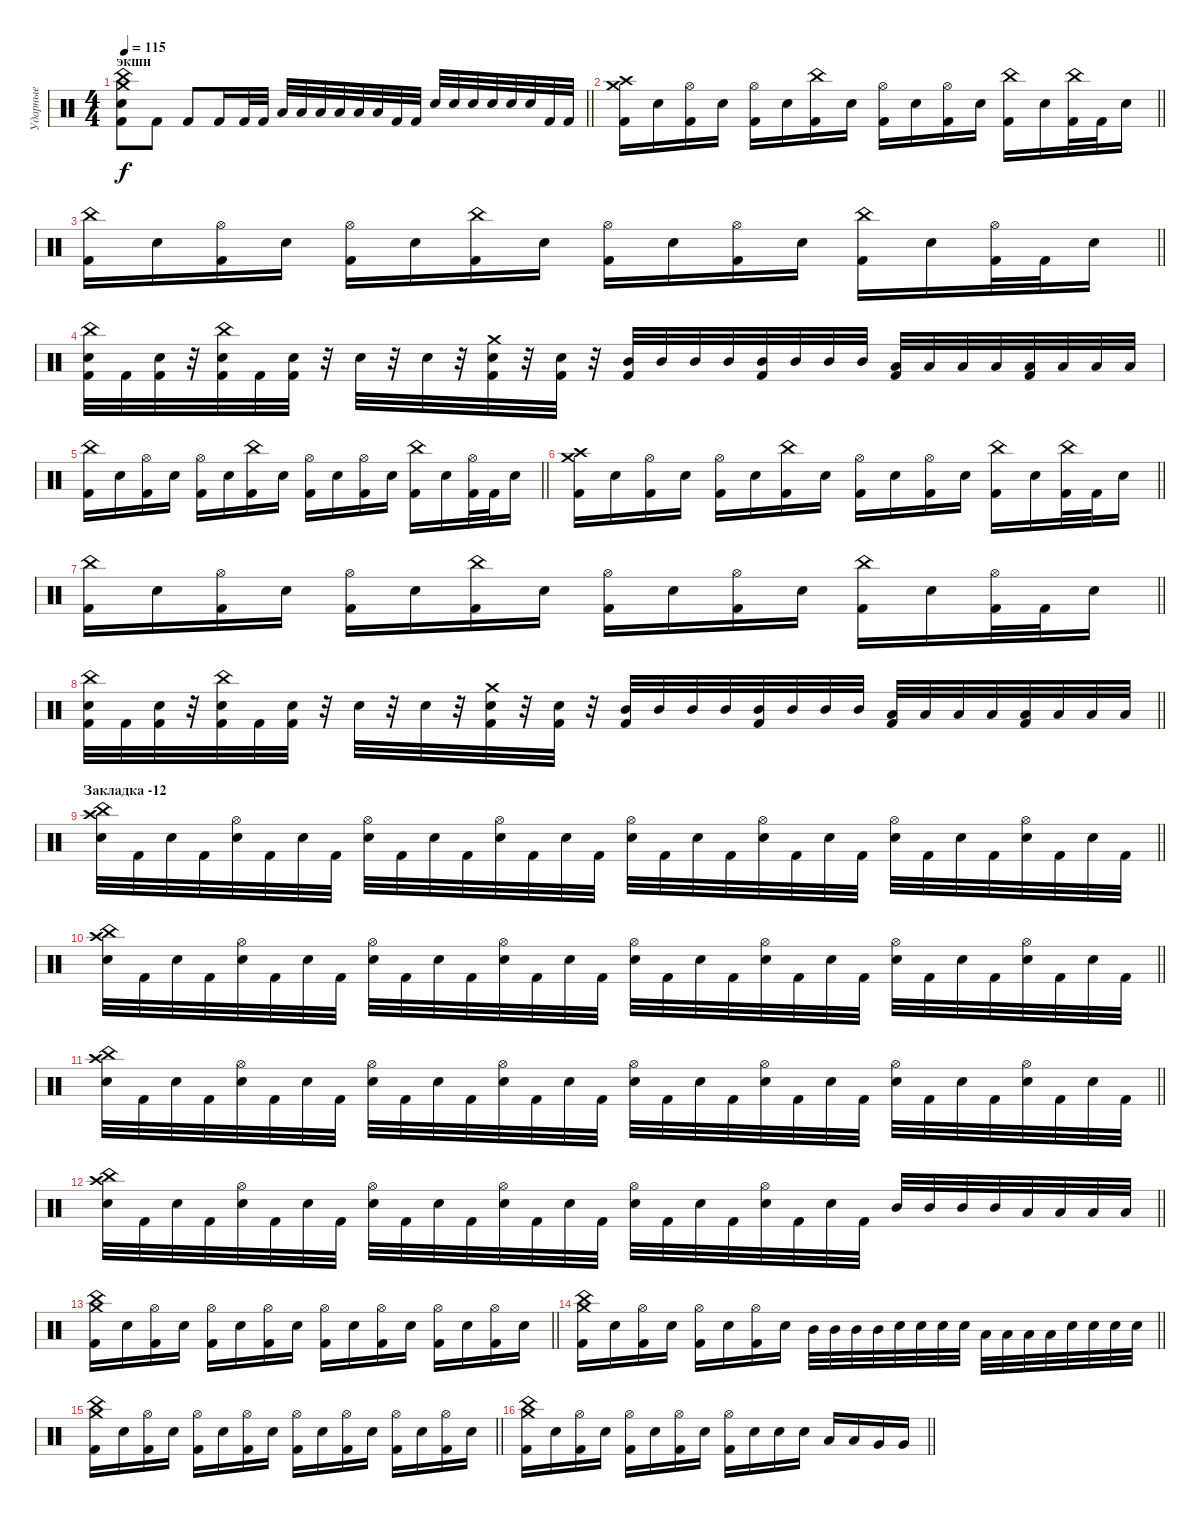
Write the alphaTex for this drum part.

\track ("Ударные" "Ударные") {instrument percussion}
\staff {score}
\articulation defaults
\ts (4 4)
\section ("" "экшн")
\tempo 115
\clef neutral
\barLineRight lightlight
\ks c
("China (hit)" "Crash medium (hit)" "Electric Snare (hit)" "Kick (hit) 2").8{dy f} "Kick (hit) 2".8 "Kick (hit) 2".8 "Kick (hit) 2".16 "Kick (hit) 2".32 "Kick (hit) 2".32 "Low Tom (hit)".32 "Low Tom (hit)".32 "Low Tom (hit)".32 "Low Tom (hit)".32 "Low Tom (hit)".32 "Low Tom (hit)".32 "Kick (hit) 2".32 "Kick (hit) 2".32 "Electric Snare (hit)".32 "Electric Snare (hit)".32 "Electric Snare (hit)".32 "Electric Snare (hit)".32 "Electric Snare (hit)".32 "Electric Snare (hit)".32 "Kick (hit) 2".32 "Kick (hit) 2".32 |
\barLineRight lightlight
("Crash medium (hit)" "Crash high (hit)" "Kick (hit) 2").16 "Electric Snare (hit)".16 ("Hi-Hat (open)" "Kick (hit) 2").16 "Electric Snare (hit)".16 ("Hi-Hat (open)" "Kick (hit) 2").16 "Electric Snare (hit)".16 ("China (hit)" "Kick (hit) 2").16 "Electric Snare (hit)".16 ("Hi-Hat (open)" "Kick (hit) 2").16 "Electric Snare (hit)".16 ("Hi-Hat (open)" "Kick (hit) 2").16 "Electric Snare (hit)".16 ("China (hit)" "Kick (hit) 2").16 "Electric Snare (hit)".16 ("China (hit)" "Kick (hit) 2").32 "Kick (hit) 2".32 "Electric Snare (hit)".16 |
\barLineRight lightlight
("China (hit)" "Kick (hit) 2").16 "Electric Snare (hit)".16 ("Hi-Hat (open)" "Kick (hit) 2").16 "Electric Snare (hit)".16 ("Hi-Hat (open)" "Kick (hit) 2").16 "Electric Snare (hit)".16 ("China (hit)" "Kick (hit) 2").16 "Electric Snare (hit)".16 ("Hi-Hat (open)" "Kick (hit) 2").16 "Electric Snare (hit)".16 ("Hi-Hat (open)" "Kick (hit) 2").16 "Electric Snare (hit)".16 ("China (hit)" "Kick (hit) 2").16 "Electric Snare (hit)".16 ("Hi-Hat (open)" "Kick (hit) 2").32 "Kick (hit) 2".32 "Electric Snare (hit)".16 |
("China (hit)" "Electric Snare (hit)" "Kick (hit) 2").32 "Kick (hit) 2".32 ("Electric Snare (hit)" "Kick (hit) 2").32 r.32 ("China (hit)" "Electric Snare (hit)" "Kick (hit) 2").32 "Kick (hit) 2".32 ("Electric Snare (hit)" "Kick (hit) 2").32 r.32 "Electric Snare (hit)".32 r.32 "Electric Snare (hit)".32 r.32 ("Crash medium (hit)" "Electric Snare (hit)" "Kick (hit) 2").32 r.32 ("Electric Snare (hit)" "Kick (hit) 2").32 r.32 ("Mid Tom (hit)" "Kick (hit) 2").32 "Mid Tom (hit)".32 "Mid Tom (hit)".32 "Mid Tom (hit)".32 ("Mid Tom (hit)" "Kick (hit) 2").32 "Mid Tom (hit)".32 "Mid Tom (hit)".32 "Mid Tom (hit)".32 ("Low Tom (hit)" "Kick (hit) 2").32 "Low Tom (hit)".32 "Low Tom (hit)".32 "Low Tom (hit)".32 ("Low Tom (hit)" "Kick (hit) 2").32 "Low Tom (hit)".32 "Low Tom (hit)".32 "Low Tom (hit)".32 |
\barLineRight lightlight
("China (hit)" "Kick (hit) 2").16 "Electric Snare (hit)".16 ("Hi-Hat (open)" "Kick (hit) 2").16 "Electric Snare (hit)".16 ("Hi-Hat (open)" "Kick (hit) 2").16 "Electric Snare (hit)".16 ("China (hit)" "Kick (hit) 2").16 "Electric Snare (hit)".16 ("Hi-Hat (open)" "Kick (hit) 2").16 "Electric Snare (hit)".16 ("Hi-Hat (open)" "Kick (hit) 2").16 "Electric Snare (hit)".16 ("China (hit)" "Kick (hit) 2").16 "Electric Snare (hit)".16 ("Hi-Hat (open)" "Kick (hit) 2").32 "Kick (hit) 2".32 "Electric Snare (hit)".16 |
\barLineRight lightlight
("Crash medium (hit)" "Crash high (hit)" "Kick (hit) 2").16 "Electric Snare (hit)".16 ("Hi-Hat (open)" "Kick (hit) 2").16 "Electric Snare (hit)".16 ("Hi-Hat (open)" "Kick (hit) 2").16 "Electric Snare (hit)".16 ("China (hit)" "Kick (hit) 2").16 "Electric Snare (hit)".16 ("Hi-Hat (open)" "Kick (hit) 2").16 "Electric Snare (hit)".16 ("Hi-Hat (open)" "Kick (hit) 2").16 "Electric Snare (hit)".16 ("China (hit)" "Kick (hit) 2").16 "Electric Snare (hit)".16 ("China (hit)" "Kick (hit) 2").32 "Kick (hit) 2".32 "Electric Snare (hit)".16 |
\barLineRight lightlight
("China (hit)" "Kick (hit) 2").16 "Electric Snare (hit)".16 ("Hi-Hat (open)" "Kick (hit) 2").16 "Electric Snare (hit)".16 ("Hi-Hat (open)" "Kick (hit) 2").16 "Electric Snare (hit)".16 ("China (hit)" "Kick (hit) 2").16 "Electric Snare (hit)".16 ("Hi-Hat (open)" "Kick (hit) 2").16 "Electric Snare (hit)".16 ("Hi-Hat (open)" "Kick (hit) 2").16 "Electric Snare (hit)".16 ("China (hit)" "Kick (hit) 2").16 "Electric Snare (hit)".16 ("Hi-Hat (open)" "Kick (hit) 2").32 "Kick (hit) 2".32 "Electric Snare (hit)".16 |
\barLineRight lightlight
("China (hit)" "Electric Snare (hit)" "Kick (hit) 2").32 "Kick (hit) 2".32 ("Electric Snare (hit)" "Kick (hit) 2").32 r.32 ("China (hit)" "Electric Snare (hit)" "Kick (hit) 2").32 "Kick (hit) 2".32 ("Electric Snare (hit)" "Kick (hit) 2").32 r.32 "Electric Snare (hit)".32 r.32 "Electric Snare (hit)".32 r.32 ("Crash medium (hit)" "Electric Snare (hit)" "Kick (hit) 2").32 r.32 ("Electric Snare (hit)" "Kick (hit) 2").32 r.32 ("Mid Tom (hit)" "Kick (hit) 2").32 "Mid Tom (hit)".32 "Mid Tom (hit)".32 "Mid Tom (hit)".32 ("Mid Tom (hit)" "Kick (hit) 2").32 "Mid Tom (hit)".32 "Mid Tom (hit)".32 "Mid Tom (hit)".32 ("Low Tom (hit)" "Kick (hit) 2").32 "Low Tom (hit)".32 "Low Tom (hit)".32 "Low Tom (hit)".32 ("Low Tom (hit)" "Kick (hit) 2").32 "Low Tom (hit)".32 "Low Tom (hit)".32 "Low Tom (hit)".32 |
\section ("" "Закладка -12")
\barLineRight lightlight
("China (hit)" "Crash high (hit)" "Electric Snare (hit)").32 "Kick (hit) 2".32 "Electric Snare (hit)".32 "Kick (hit) 2".32 ("Hi-Hat (open)" "Electric Snare (hit)").32 "Kick (hit) 2".32 "Electric Snare (hit)".32 "Kick (hit) 2".32 ("Hi-Hat (open)" "Electric Snare (hit)").32 "Kick (hit) 2".32 "Electric Snare (hit)".32 "Kick (hit) 2".32 ("Hi-Hat (open)" "Electric Snare (hit)").32 "Kick (hit) 2".32 "Electric Snare (hit)".32 "Kick (hit) 2".32 ("Hi-Hat (open)" "Electric Snare (hit)").32 "Kick (hit) 2".32 "Electric Snare (hit)".32 "Kick (hit) 2".32 ("Hi-Hat (open)" "Electric Snare (hit)").32 "Kick (hit) 2".32 "Electric Snare (hit)".32 "Kick (hit) 2".32 ("Hi-Hat (open)" "Electric Snare (hit)").32 "Kick (hit) 2".32 "Electric Snare (hit)".32 "Kick (hit) 2".32 ("Hi-Hat (open)" "Electric Snare (hit)").32 "Kick (hit) 2".32 "Electric Snare (hit)".32 "Kick (hit) 2".32 |
\barLineRight lightlight
("China (hit)" "Crash high (hit)" "Electric Snare (hit)").32 "Kick (hit) 2".32 "Electric Snare (hit)".32 "Kick (hit) 2".32 ("Hi-Hat (open)" "Electric Snare (hit)").32 "Kick (hit) 2".32 "Electric Snare (hit)".32 "Kick (hit) 2".32 ("Hi-Hat (open)" "Electric Snare (hit)").32 "Kick (hit) 2".32 "Electric Snare (hit)".32 "Kick (hit) 2".32 ("Hi-Hat (open)" "Electric Snare (hit)").32 "Kick (hit) 2".32 "Electric Snare (hit)".32 "Kick (hit) 2".32 ("Hi-Hat (open)" "Electric Snare (hit)").32 "Kick (hit) 2".32 "Electric Snare (hit)".32 "Kick (hit) 2".32 ("Hi-Hat (open)" "Electric Snare (hit)").32 "Kick (hit) 2".32 "Electric Snare (hit)".32 "Kick (hit) 2".32 ("Hi-Hat (open)" "Electric Snare (hit)").32 "Kick (hit) 2".32 "Electric Snare (hit)".32 "Kick (hit) 2".32 ("Hi-Hat (open)" "Electric Snare (hit)").32 "Kick (hit) 2".32 "Electric Snare (hit)".32 "Kick (hit) 2".32 |
\barLineRight lightlight
("China (hit)" "Crash high (hit)" "Electric Snare (hit)").32 "Kick (hit) 2".32 "Electric Snare (hit)".32 "Kick (hit) 2".32 ("Hi-Hat (open)" "Electric Snare (hit)").32 "Kick (hit) 2".32 "Electric Snare (hit)".32 "Kick (hit) 2".32 ("Hi-Hat (open)" "Electric Snare (hit)").32 "Kick (hit) 2".32 "Electric Snare (hit)".32 "Kick (hit) 2".32 ("Hi-Hat (open)" "Electric Snare (hit)").32 "Kick (hit) 2".32 "Electric Snare (hit)".32 "Kick (hit) 2".32 ("Hi-Hat (open)" "Electric Snare (hit)").32 "Kick (hit) 2".32 "Electric Snare (hit)".32 "Kick (hit) 2".32 ("Hi-Hat (open)" "Electric Snare (hit)").32 "Kick (hit) 2".32 "Electric Snare (hit)".32 "Kick (hit) 2".32 ("Hi-Hat (open)" "Electric Snare (hit)").32 "Kick (hit) 2".32 "Electric Snare (hit)".32 "Kick (hit) 2".32 ("Hi-Hat (open)" "Electric Snare (hit)").32 "Kick (hit) 2".32 "Electric Snare (hit)".32 "Kick (hit) 2".32 |
\barLineRight lightlight
("China (hit)" "Crash high (hit)" "Electric Snare (hit)").32 "Kick (hit) 2".32 "Electric Snare (hit)".32 "Kick (hit) 2".32 ("Hi-Hat (open)" "Electric Snare (hit)").32 "Kick (hit) 2".32 "Electric Snare (hit)".32 "Kick (hit) 2".32 ("Hi-Hat (open)" "Electric Snare (hit)").32 "Kick (hit) 2".32 "Electric Snare (hit)".32 "Kick (hit) 2".32 ("Hi-Hat (open)" "Electric Snare (hit)").32 "Kick (hit) 2".32 "Electric Snare (hit)".32 "Kick (hit) 2".32 ("Hi-Hat (open)" "Electric Snare (hit)").32 "Kick (hit) 2".32 "Electric Snare (hit)".32 "Kick (hit) 2".32 ("Hi-Hat (open)" "Electric Snare (hit)").32 "Kick (hit) 2".32 "Electric Snare (hit)".32 "Kick (hit) 2".32 "Mid Tom (hit)".32 "Mid Tom (hit)".32 "Mid Tom (hit)".32 "Mid Tom (hit)".32 "Low Tom (hit)".32 "Low Tom (hit)".32 "Low Tom (hit)".32 "Low Tom (hit)".32 |
\barLineRight lightlight
("Crash medium (hit)" "China (hit)" "Kick (hit) 2").16 "Electric Snare (hit)".16 ("Hi-Hat (open)" "Kick (hit) 2").16 "Electric Snare (hit)".16 ("Hi-Hat (open)" "Kick (hit) 2").16 "Electric Snare (hit)".16 ("Hi-Hat (open)" "Kick (hit) 2").16 "Electric Snare (hit)".16 ("Hi-Hat (open)" "Kick (hit) 2").16 "Electric Snare (hit)".16 ("Hi-Hat (open)" "Kick (hit) 2").16 "Electric Snare (hit)".16 ("Hi-Hat (open)" "Kick (hit) 2").16 "Electric Snare (hit)".16 ("Hi-Hat (open)" "Kick (hit) 2").16 "Electric Snare (hit)".16 |
\barLineRight lightlight
("Crash medium (hit)" "China (hit)" "Kick (hit) 2").16 "Electric Snare (hit)".16 ("Hi-Hat (open)" "Kick (hit) 2").16 "Electric Snare (hit)".16 ("Hi-Hat (open)" "Kick (hit) 2").16 "Electric Snare (hit)".16 ("Hi-Hat (open)" "Kick (hit) 2").16 "Electric Snare (hit)".16 "Mid Tom (hit)".32 "Mid Tom (hit)".32 "Mid Tom (hit)".32 "Mid Tom (hit)".32 "Electric Snare (hit)".32 "Electric Snare (hit)".32 "Electric Snare (hit)".32 "Electric Snare (hit)".32 "Low Tom (hit)".32 "Low Tom (hit)".32 "Low Tom (hit)".32 "Low Tom (hit)".32 "Electric Snare (hit)".32 "Electric Snare (hit)".32 "Electric Snare (hit)".32 "Electric Snare (hit)".32 |
\barLineRight lightlight
("Crash medium (hit)" "China (hit)" "Kick (hit) 2").16 "Electric Snare (hit)".16 ("Hi-Hat (open)" "Kick (hit) 2").16 "Electric Snare (hit)".16 ("Hi-Hat (open)" "Kick (hit) 2").16 "Electric Snare (hit)".16 ("Hi-Hat (open)" "Kick (hit) 2").16 "Electric Snare (hit)".16 ("Hi-Hat (open)" "Kick (hit) 2").16 "Electric Snare (hit)".16 ("Hi-Hat (open)" "Kick (hit) 2").16 "Electric Snare (hit)".16 ("Hi-Hat (open)" "Kick (hit) 2").16 "Electric Snare (hit)".16 ("Hi-Hat (open)" "Kick (hit) 2").16 "Electric Snare (hit)".16 |
\barLineRight lightlight
("Crash medium (hit)" "China (hit)" "Kick (hit) 2").16 "Electric Snare (hit)".16 ("Hi-Hat (open)" "Kick (hit) 2").16 "Electric Snare (hit)".16 ("Hi-Hat (open)" "Kick (hit) 2").16 "Electric Snare (hit)".16 ("Hi-Hat (open)" "Kick (hit) 2").16 "Electric Snare (hit)".16 ("Hi-Hat (open)" "Kick (hit) 2").16 "Electric Snare (hit)".16 "Electric Snare (hit)".16 "Electric Snare (hit)".16 "Low Tom (hit)".16 "Low Tom (hit)".16 "Very Low Tom (hit)".16 "Very Low Tom (hit)".16
